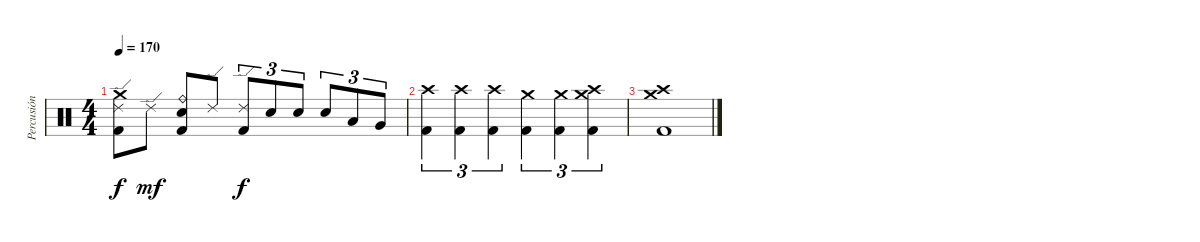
\track ("Percusión" "Percusión") {instrument percussion}
\staff {score}
\articulation defaults
\ts (4 4)
\tempo 170
\clef neutral
\ks c
("Crash medium (hit)" "Ride (edge) 2" "Kick (hit) 2").8{dy f} "Ride (edge) 2".8{dy mf} ("Ride (bell)" "Electric Snare (hit)" "Kick (hit) 2").8 "Ride (edge) 2".8 ("Ride (edge) 2" "Kick (hit) 2").8{tu (3 2) dy f} "Electric Snare (hit)".8{tu (3 2)} "Electric Snare (hit)".8{tu (3 2)} "Electric Snare (hit)".8{tu (3 2)} "Low Tom (hit)".8{tu (3 2)} "Very Low Tom (hit)".8{tu (3 2)} |
("Crash high (hit)" "Kick (hit) 2").4{tu (3 2)} ("Crash high (hit)" "Kick (hit) 2").4{tu (3 2)} ("Crash high (hit)" "Kick (hit) 2").4{tu (3 2)} ("Crash medium (hit)" "Kick (hit) 2").4{tu (3 2)} ("Crash medium (hit)" "Kick (hit) 2").4{tu (3 2)} ("Crash medium (hit)" "Crash high (hit)" "Kick (hit) 2").4{tu (3 2)} |
("Crash high (hit)" "Crash medium (hit)" "Kick (hit) 2").1
